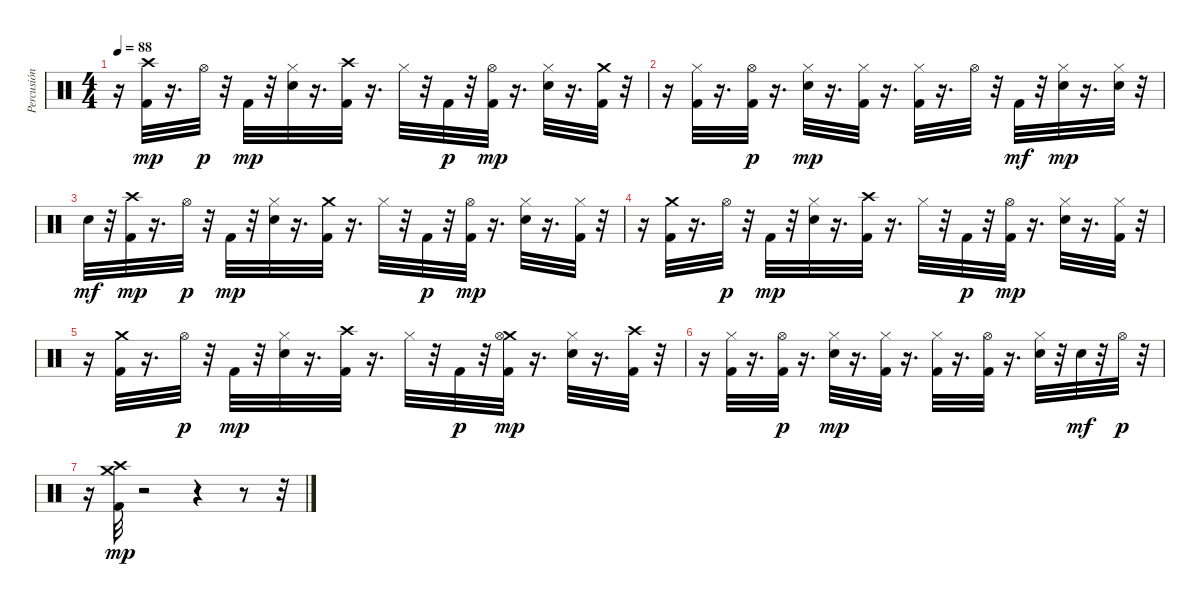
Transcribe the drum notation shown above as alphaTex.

\track ("Percusión" "Percusión") {instrument percussion}
\staff {score}
\articulation defaults
\ts (4 4)
\tempo 88
\clef neutral
\ks c
r.16{dy mp} ("Kick (hit) 2" "Crash high (hit)").32 r.16{d} "Hi-Hat (open)".32{dy p} r.32 "Kick (hit) 2".32{dy mp} r.32 ("Electric Snare (hit)" "Hi-Hat (closed)").32 r.16{d} ("Kick (hit) 2" "Crash high (hit)").32 r.16{d} "Hi-Hat (closed)".32 r.32 "Kick (hit) 2".32{dy p} r.32 ("Kick (hit) 2" "Hi-Hat (open)").32{dy mp} r.16{d} ("Electric Snare (hit)" "Hi-Hat (closed)").32 r.16{d} ("Kick (hit) 2" "Crash medium (hit)").32 r.32 |
r.16 ("Kick (hit) 2" "Hi-Hat (closed)").32 r.16{d} ("Kick (hit) 2" "Hi-Hat (open)").32{dy p} r.16{d} ("Electric Snare (hit)" "Hi-Hat (closed)").32{dy mp} r.16{d} ("Kick (hit) 2" "Hi-Hat (closed)").32 r.16{d} ("Kick (hit) 2" "Hi-Hat (closed)").32 r.16{d} "Hi-Hat (open)".32 r.32 "Kick (hit) 2".32{dy mf} r.32 ("Electric Snare (hit)" "Hi-Hat (closed)").32{dy mp} r.16{d} ("Electric Snare (hit)" "Hi-Hat (closed)").32 r.32 |
"Electric Snare (hit)".32{dy mf} r.32 ("Kick (hit) 2" "Crash high (hit)").32{dy mp} r.16{d} "Hi-Hat (open)".32{dy p} r.32 "Kick (hit) 2".32{dy mp} r.32 ("Electric Snare (hit)" "Hi-Hat (closed)").32 r.16{d} ("Kick (hit) 2" "Crash medium (hit)").32 r.16{d} "Hi-Hat (closed)".32 r.32 "Kick (hit) 2".32{dy p} r.32 ("Kick (hit) 2" "Hi-Hat (open)").32{dy mp} r.16{d} ("Electric Snare (hit)" "Hi-Hat (closed)").32 r.16{d} ("Kick (hit) 2" "Hi-Hat (closed)").32 r.32 |
r.16 ("Kick (hit) 2" "Crash medium (hit)").32 r.16{d} "Hi-Hat (open)".32{dy p} r.32 "Kick (hit) 2".32{dy mp} r.32 ("Electric Snare (hit)" "Hi-Hat (closed)").32 r.16{d} ("Kick (hit) 2" "Crash high (hit)").32 r.16{d} "Hi-Hat (closed)".32 r.32 "Kick (hit) 2".32{dy p} r.32 ("Kick (hit) 2" "Hi-Hat (open)").32{dy mp} r.16{d} ("Electric Snare (hit)" "Hi-Hat (closed)").32 r.16{d} ("Kick (hit) 2" "Hi-Hat (closed)").32 r.32 |
r.16 ("Kick (hit) 2" "Crash medium (hit)").32 r.16{d} "Hi-Hat (open)".32{dy p} r.32 "Kick (hit) 2".32{dy mp} r.32 ("Electric Snare (hit)" "Hi-Hat (closed)").32 r.16{d} ("Kick (hit) 2" "Crash high (hit)").32 r.16{d} "Hi-Hat (closed)".32 r.32 "Kick (hit) 2".32{dy p} r.32 ("Kick (hit) 2" "Crash medium (hit)" "Hi-Hat (open)").32{dy mp} r.16{d} ("Electric Snare (hit)" "Hi-Hat (closed)").32 r.16{d} ("Kick (hit) 2" "Crash high (hit)").32 r.32 |
r.16 ("Kick (hit) 2" "Hi-Hat (closed)").32 r.16{d} ("Kick (hit) 2" "Hi-Hat (open)").32{dy p} r.16{d} ("Electric Snare (hit)" "Hi-Hat (closed)").32{dy mp} r.16{d} ("Kick (hit) 2" "Hi-Hat (closed)").32 r.16{d} ("Kick (hit) 2" "Hi-Hat (closed)").32 r.16{d} ("Kick (hit) 2" "Hi-Hat (open)").32 r.16{d} ("Electric Snare (hit)" "Hi-Hat (closed)").32 r.32 "Electric Snare (hit)".32{dy mf} r.32 "Hi-Hat (open)".32{dy p} r.32 |
r.16 ("Kick (hit) 2" "Crash medium (hit)" "Crash high (hit)").32{dy mp} r.2 r.4 r.8 r.32
